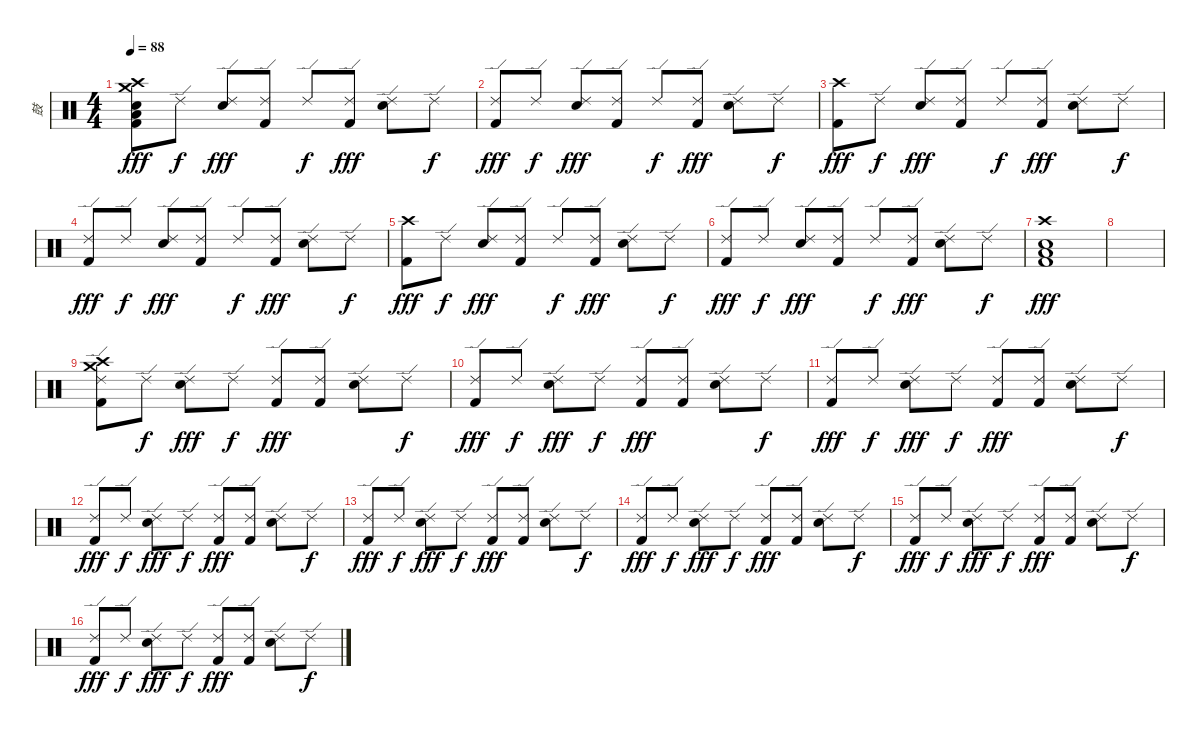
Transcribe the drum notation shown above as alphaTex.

\track ("鼓" "鼓") {instrument percussion}
\staff {score}
\articulation defaults
\ts (4 4)
\tempo 88
\clef neutral
\ks c
("Crash high (hit)" "Crash medium (hit)" "Low Tom (hit)" "Snare (hit) 2" "Kick (hit) 2").8{dy fff} "Ride (edge) 2".8{dy f} ("Ride (edge) 2" "Snare (hit) 2").8{dy fff} ("Ride (edge) 2" "Kick (hit) 2").8 "Ride (edge) 2".8{dy f} ("Ride (edge) 2" "Kick (hit) 2").8{dy fff} ("Ride (edge) 2" "Snare (hit) 2").8 "Ride (edge) 2".8{dy f} |
("Ride (edge) 2" "Kick (hit) 2").8{dy fff} "Ride (edge) 2".8{dy f} ("Ride (edge) 2" "Snare (hit) 2").8{dy fff} ("Ride (edge) 2" "Kick (hit) 2").8 "Ride (edge) 2".8{dy f} ("Ride (edge) 2" "Kick (hit) 2").8{dy fff} ("Ride (edge) 2" "Snare (hit) 2").8 "Ride (edge) 2".8{dy f} |
("Crash high (hit)" "Kick (hit) 2").8{dy fff} "Ride (edge) 2".8{dy f} ("Ride (edge) 2" "Snare (hit) 2").8{dy fff} ("Ride (edge) 2" "Kick (hit) 2").8 "Ride (edge) 2".8{dy f} ("Ride (edge) 2" "Kick (hit) 2").8{dy fff} ("Ride (edge) 2" "Snare (hit) 2").8 "Ride (edge) 2".8{dy f} |
("Ride (edge) 2" "Kick (hit) 2").8{dy fff} "Ride (edge) 2".8{dy f} ("Ride (edge) 2" "Snare (hit) 2").8{dy fff} ("Ride (edge) 2" "Kick (hit) 2").8 "Ride (edge) 2".8{dy f} ("Ride (edge) 2" "Kick (hit) 2").8{dy fff} ("Ride (edge) 2" "Snare (hit) 2").8 "Ride (edge) 2".8{dy f} |
("Crash high (hit)" "Kick (hit) 2").8{dy fff} "Ride (edge) 2".8{dy f} ("Ride (edge) 2" "Snare (hit) 2").8{dy fff} ("Ride (edge) 2" "Kick (hit) 2").8 "Ride (edge) 2".8{dy f} ("Ride (edge) 2" "Kick (hit) 2").8{dy fff} ("Ride (edge) 2" "Snare (hit) 2").8 "Ride (edge) 2".8{dy f} |
("Ride (edge) 2" "Kick (hit) 2").8{dy fff} "Ride (edge) 2".8{dy f} ("Ride (edge) 2" "Snare (hit) 2").8{dy fff} ("Ride (edge) 2" "Kick (hit) 2").8 "Ride (edge) 2".8{dy f} ("Ride (edge) 2" "Kick (hit) 2").8{dy fff} ("Ride (edge) 2" "Snare (hit) 2").8 "Ride (edge) 2".8{dy f} |
("Crash high (hit)" "Low Tom (hit)" "Snare (hit) 2" "Kick (hit) 2").1{dy fff} |
|
("Ride (edge) 2" "Crash high (hit)" "Crash medium (hit)" "Kick (hit) 2").8 "Ride (edge) 2".8{dy f} ("Ride (edge) 2" "Snare (hit) 2").8{dy fff} "Ride (edge) 2".8{dy f} ("Ride (edge) 2" "Kick (hit) 2").8{dy fff} ("Ride (edge) 2" "Kick (hit) 2").8 ("Ride (edge) 2" "Snare (hit) 2").8 "Ride (edge) 2".8{dy f} |
("Ride (edge) 2" "Kick (hit) 2").8{dy fff} "Ride (edge) 2".8{dy f} ("Ride (edge) 2" "Snare (hit) 2").8{dy fff} "Ride (edge) 2".8{dy f} ("Ride (edge) 2" "Kick (hit) 2").8{dy fff} ("Ride (edge) 2" "Kick (hit) 2").8 ("Ride (edge) 2" "Snare (hit) 2").8 "Ride (edge) 2".8{dy f} |
("Ride (edge) 2" "Kick (hit) 2").8{dy fff} "Ride (edge) 2".8{dy f} ("Ride (edge) 2" "Snare (hit) 2").8{dy fff} "Ride (edge) 2".8{dy f} ("Ride (edge) 2" "Kick (hit) 2").8{dy fff} ("Ride (edge) 2" "Kick (hit) 2").8 ("Ride (edge) 2" "Snare (hit) 2").8 "Ride (edge) 2".8{dy f} |
("Ride (edge) 2" "Kick (hit) 2").8{dy fff} "Ride (edge) 2".8{dy f} ("Ride (edge) 2" "Snare (hit) 2").8{dy fff} "Ride (edge) 2".8{dy f} ("Ride (edge) 2" "Kick (hit) 2").8{dy fff} ("Ride (edge) 2" "Kick (hit) 2").8 ("Ride (edge) 2" "Snare (hit) 2").8 "Ride (edge) 2".8{dy f} |
("Ride (edge) 2" "Kick (hit) 2").8{dy fff} "Ride (edge) 2".8{dy f} ("Ride (edge) 2" "Snare (hit) 2").8{dy fff} "Ride (edge) 2".8{dy f} ("Ride (edge) 2" "Kick (hit) 2").8{dy fff} ("Ride (edge) 2" "Kick (hit) 2").8 ("Ride (edge) 2" "Snare (hit) 2").8 "Ride (edge) 2".8{dy f} |
("Ride (edge) 2" "Kick (hit) 2").8{dy fff} "Ride (edge) 2".8{dy f} ("Ride (edge) 2" "Snare (hit) 2").8{dy fff} "Ride (edge) 2".8{dy f} ("Ride (edge) 2" "Kick (hit) 2").8{dy fff} ("Ride (edge) 2" "Kick (hit) 2").8 ("Ride (edge) 2" "Snare (hit) 2").8 "Ride (edge) 2".8{dy f} |
("Ride (edge) 2" "Kick (hit) 2").8{dy fff} "Ride (edge) 2".8{dy f} ("Ride (edge) 2" "Snare (hit) 2").8{dy fff} "Ride (edge) 2".8{dy f} ("Ride (edge) 2" "Kick (hit) 2").8{dy fff} ("Ride (edge) 2" "Kick (hit) 2").8 ("Ride (edge) 2" "Snare (hit) 2").8 "Ride (edge) 2".8{dy f} |
("Ride (edge) 2" "Kick (hit) 2").8{dy fff} "Ride (edge) 2".8{dy f} ("Ride (edge) 2" "Snare (hit) 2").8{dy fff} "Ride (edge) 2".8{dy f} ("Ride (edge) 2" "Kick (hit) 2").8{dy fff} ("Ride (edge) 2" "Kick (hit) 2").8 ("Ride (edge) 2" "Snare (hit) 2").8 "Ride (edge) 2".8{dy f}
